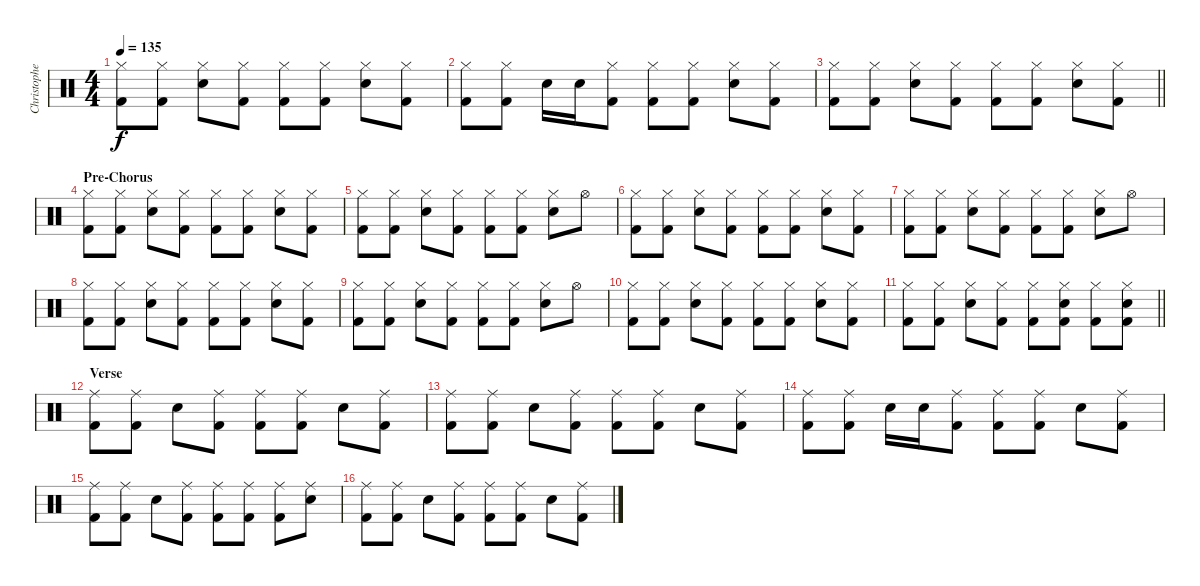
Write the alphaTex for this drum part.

\track ("Christopher - Drums" "Christophe") {instrument percussion}
\staff {score}
\articulation defaults
\ts (4 4)
\tempo 135
\clef neutral
\ks c
("Hi-Hat (closed)" "Kick (hit) 2").8{dy f} ("Hi-Hat (closed)" "Kick (hit) 2").8 ("Hi-Hat (closed)" "Snare (hit) 2").8 ("Hi-Hat (closed)" "Kick (hit) 2").8 ("Hi-Hat (closed)" "Kick (hit) 2").8 ("Hi-Hat (closed)" "Kick (hit) 2").8 ("Hi-Hat (closed)" "Snare (hit) 2").8 ("Hi-Hat (closed)" "Kick (hit) 2").8 |
("Hi-Hat (closed)" "Kick (hit) 2").8 ("Hi-Hat (closed)" "Kick (hit) 2").8 "Snare (hit) 2".16 "Snare (hit) 2".16 ("Hi-Hat (closed)" "Kick (hit) 2").8 ("Hi-Hat (closed)" "Kick (hit) 2").8 ("Hi-Hat (closed)" "Kick (hit) 2").8 ("Hi-Hat (closed)" "Snare (hit) 2").8 ("Hi-Hat (closed)" "Kick (hit) 2").8 |
\barLineRight lightlight
("Hi-Hat (closed)" "Kick (hit) 2").8 ("Hi-Hat (closed)" "Kick (hit) 2").8 ("Hi-Hat (closed)" "Snare (hit) 2").8 ("Hi-Hat (closed)" "Kick (hit) 2").8 ("Hi-Hat (closed)" "Kick (hit) 2").8 ("Hi-Hat (closed)" "Kick (hit) 2").8 ("Hi-Hat (closed)" "Snare (hit) 2").8 ("Hi-Hat (closed)" "Kick (hit) 2").8 |
\section ("" "Pre-Chorus")
("Hi-Hat (closed)" "Kick (hit) 2").8 ("Hi-Hat (closed)" "Kick (hit) 2").8 ("Hi-Hat (closed)" "Snare (hit) 2").8 ("Hi-Hat (closed)" "Kick (hit) 2").8 ("Hi-Hat (closed)" "Kick (hit) 2").8 ("Hi-Hat (closed)" "Kick (hit) 2").8 ("Hi-Hat (closed)" "Snare (hit) 2").8 ("Hi-Hat (closed)" "Kick (hit) 2").8 |
("Hi-Hat (closed)" "Kick (hit) 2").8 ("Hi-Hat (closed)" "Kick (hit) 2").8 ("Hi-Hat (closed)" "Snare (hit) 2").8 ("Hi-Hat (closed)" "Kick (hit) 2").8 ("Hi-Hat (closed)" "Kick (hit) 2").8 ("Hi-Hat (closed)" "Kick (hit) 2").8 ("Hi-Hat (closed)" "Snare (hit) 2").8 "Hi-Hat (open)".8 |
("Hi-Hat (closed)" "Kick (hit) 2").8 ("Hi-Hat (closed)" "Kick (hit) 2").8 ("Hi-Hat (closed)" "Snare (hit) 2").8 ("Hi-Hat (closed)" "Kick (hit) 2").8 ("Hi-Hat (closed)" "Kick (hit) 2").8 ("Hi-Hat (closed)" "Kick (hit) 2").8 ("Hi-Hat (closed)" "Snare (hit) 2").8 ("Hi-Hat (closed)" "Kick (hit) 2").8 |
("Hi-Hat (closed)" "Kick (hit) 2").8 ("Hi-Hat (closed)" "Kick (hit) 2").8 ("Hi-Hat (closed)" "Snare (hit) 2").8 ("Hi-Hat (closed)" "Kick (hit) 2").8 ("Hi-Hat (closed)" "Kick (hit) 2").8 ("Hi-Hat (closed)" "Kick (hit) 2").8 ("Hi-Hat (closed)" "Snare (hit) 2").8 "Hi-Hat (open)".8 |
("Hi-Hat (closed)" "Kick (hit) 2").8 ("Hi-Hat (closed)" "Kick (hit) 2").8 ("Hi-Hat (closed)" "Snare (hit) 2").8 ("Hi-Hat (closed)" "Kick (hit) 2").8 ("Hi-Hat (closed)" "Kick (hit) 2").8 ("Hi-Hat (closed)" "Kick (hit) 2").8 ("Hi-Hat (closed)" "Snare (hit) 2").8 ("Hi-Hat (closed)" "Kick (hit) 2").8 |
("Hi-Hat (closed)" "Kick (hit) 2").8 ("Hi-Hat (closed)" "Kick (hit) 2").8 ("Hi-Hat (closed)" "Snare (hit) 2").8 ("Hi-Hat (closed)" "Kick (hit) 2").8 ("Hi-Hat (closed)" "Kick (hit) 2").8 ("Hi-Hat (closed)" "Kick (hit) 2").8 ("Hi-Hat (closed)" "Snare (hit) 2").8 "Hi-Hat (open)".8 |
("Hi-Hat (closed)" "Kick (hit) 2").8 ("Hi-Hat (closed)" "Kick (hit) 2").8 ("Hi-Hat (closed)" "Snare (hit) 2").8 ("Hi-Hat (closed)" "Kick (hit) 2").8 ("Hi-Hat (closed)" "Kick (hit) 2").8 ("Hi-Hat (closed)" "Kick (hit) 2").8 ("Hi-Hat (closed)" "Snare (hit) 2").8 ("Hi-Hat (closed)" "Kick (hit) 2").8 |
\barLineRight lightlight
("Hi-Hat (closed)" "Kick (hit) 2").8 ("Hi-Hat (closed)" "Kick (hit) 2").8 ("Hi-Hat (closed)" "Snare (hit) 2").8 ("Hi-Hat (closed)" "Kick (hit) 2").8 ("Hi-Hat (closed)" "Kick (hit) 2").8 ("Hi-Hat (closed)" "Snare (hit) 2" "Kick (hit) 2").8 ("Hi-Hat (closed)" "Kick (hit) 2").8 ("Hi-Hat (closed)" "Snare (hit) 2" "Kick (hit) 2").8 |
\section ("" "Verse")
("Ride (middle)" "Kick (hit) 2").8 ("Ride (middle)" "Kick (hit) 2").8 "Snare (hit) 2".8 ("Ride (middle)" "Kick (hit) 2").8 ("Ride (middle)" "Kick (hit) 2").8 ("Ride (middle)" "Kick (hit) 2").8 "Snare (hit) 2".8 ("Ride (middle)" "Kick (hit) 2").8 |
("Ride (middle)" "Kick (hit) 2").8 ("Ride (middle)" "Kick (hit) 2").8 "Snare (hit) 2".8 ("Ride (middle)" "Kick (hit) 2").8 ("Ride (middle)" "Kick (hit) 2").8 ("Ride (middle)" "Kick (hit) 2").8 "Snare (hit) 2".8 ("Ride (middle)" "Kick (hit) 2").8 |
("Ride (middle)" "Kick (hit) 2").8 ("Ride (middle)" "Kick (hit) 2").8 "Snare (hit) 2".16 "Snare (hit) 2".16 ("Ride (middle)" "Kick (hit) 2").8 ("Ride (middle)" "Kick (hit) 2").8 ("Ride (middle)" "Kick (hit) 2").8 "Snare (hit) 2".8 ("Ride (middle)" "Kick (hit) 2").8 |
("Ride (middle)" "Kick (hit) 2").8 ("Ride (middle)" "Kick (hit) 2").8 "Snare (hit) 2".8 ("Ride (middle)" "Kick (hit) 2").8 ("Ride (middle)" "Kick (hit) 2").8 ("Ride (middle)" "Kick (hit) 2").8 ("Ride (middle)" "Kick (hit) 2").8 ("Ride (middle)" "Snare (hit) 2").8 |
("Ride (middle)" "Kick (hit) 2").8 ("Ride (middle)" "Kick (hit) 2").8 "Snare (hit) 2".8 ("Ride (middle)" "Kick (hit) 2").8 ("Ride (middle)" "Kick (hit) 2").8 ("Ride (middle)" "Kick (hit) 2").8 "Snare (hit) 2".8 ("Ride (middle)" "Kick (hit) 2").8
